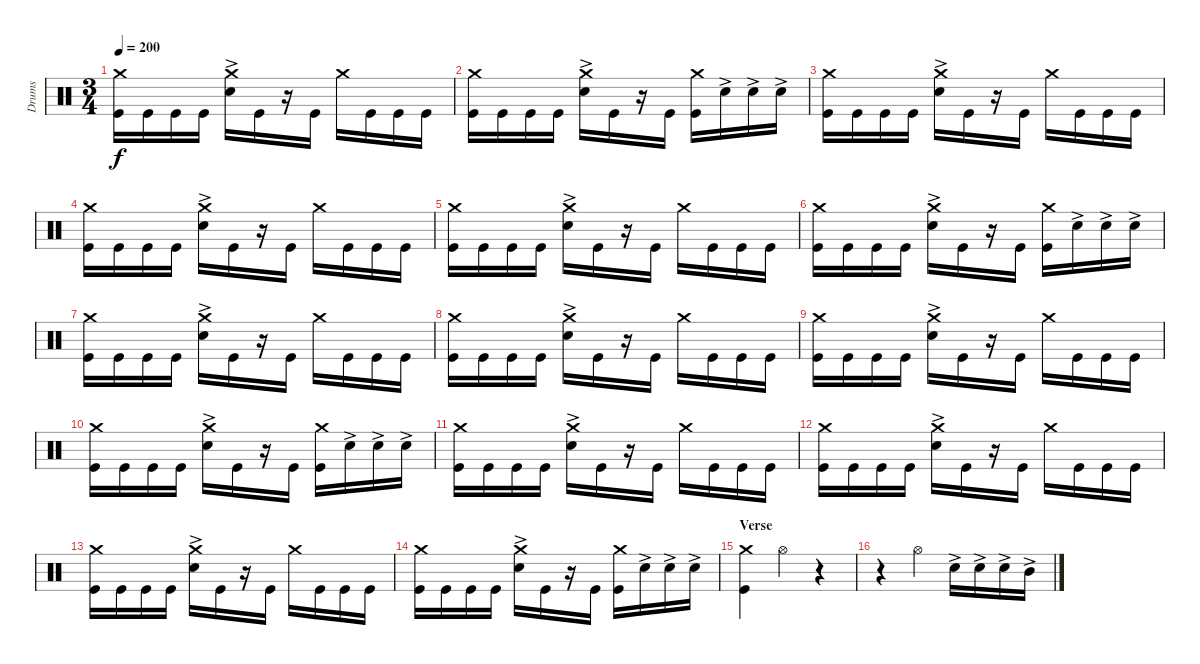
\track ("Drums" "Drums") {instrument percussion}
\staff {score}
\articulation defaults
\ts (3 4)
\tempo 200
\clef neutral
\ks c
("Crash medium (hit)" "Kick (hit)").16{dy f} "Kick (hit)".16 "Kick (hit)".16 "Kick (hit)".16 ("Crash medium (hit)" "Snare (hit) 2"{ac}).16 "Kick (hit)".16 r.16 "Kick (hit)".16 "Crash medium (hit)".16 "Kick (hit)".16 "Kick (hit)".16 "Kick (hit)".16 |
("Crash medium (hit)" "Kick (hit)").16 "Kick (hit)".16 "Kick (hit)".16 "Kick (hit)".16 ("Crash medium (hit)" "Snare (hit) 2"{ac}).16 "Kick (hit)".16 r.16 "Kick (hit)".16 ("Kick (hit)" "Crash medium (hit)").16 "Snare (hit) 2"{ac}.16 "Snare (hit) 2"{ac}.16 "Snare (hit) 2"{ac}.16 |
("Crash medium (hit)" "Kick (hit)").16 "Kick (hit)".16 "Kick (hit)".16 "Kick (hit)".16 ("Crash medium (hit)" "Snare (hit) 2"{ac}).16 "Kick (hit)".16 r.16 "Kick (hit)".16 "Crash medium (hit)".16 "Kick (hit)".16 "Kick (hit)".16 "Kick (hit)".16 |
("Crash medium (hit)" "Kick (hit)").16 "Kick (hit)".16 "Kick (hit)".16 "Kick (hit)".16 ("Crash medium (hit)" "Snare (hit) 2"{ac}).16 "Kick (hit)".16 r.16 "Kick (hit)".16 "Crash medium (hit)".16 "Kick (hit)".16 "Kick (hit)".16 "Kick (hit)".16 |
("Crash medium (hit)" "Kick (hit)").16 "Kick (hit)".16 "Kick (hit)".16 "Kick (hit)".16 ("Crash medium (hit)" "Snare (hit) 2"{ac}).16 "Kick (hit)".16 r.16 "Kick (hit)".16 "Crash medium (hit)".16 "Kick (hit)".16 "Kick (hit)".16 "Kick (hit)".16 |
("Crash medium (hit)" "Kick (hit)").16 "Kick (hit)".16 "Kick (hit)".16 "Kick (hit)".16 ("Crash medium (hit)" "Snare (hit) 2"{ac}).16 "Kick (hit)".16 r.16 "Kick (hit)".16 ("Kick (hit)" "Crash medium (hit)").16 "Snare (hit) 2"{ac}.16 "Snare (hit) 2"{ac}.16 "Snare (hit) 2"{ac}.16 |
("Crash medium (hit)" "Kick (hit)").16 "Kick (hit)".16 "Kick (hit)".16 "Kick (hit)".16 ("Crash medium (hit)" "Snare (hit) 2"{ac}).16 "Kick (hit)".16 r.16 "Kick (hit)".16 "Crash medium (hit)".16 "Kick (hit)".16 "Kick (hit)".16 "Kick (hit)".16 |
("Crash medium (hit)" "Kick (hit)").16 "Kick (hit)".16 "Kick (hit)".16 "Kick (hit)".16 ("Crash medium (hit)" "Snare (hit) 2"{ac}).16 "Kick (hit)".16 r.16 "Kick (hit)".16 "Crash medium (hit)".16 "Kick (hit)".16 "Kick (hit)".16 "Kick (hit)".16 |
("Crash medium (hit)" "Kick (hit)").16 "Kick (hit)".16 "Kick (hit)".16 "Kick (hit)".16 ("Crash medium (hit)" "Snare (hit) 2"{ac}).16 "Kick (hit)".16 r.16 "Kick (hit)".16 "Crash medium (hit)".16 "Kick (hit)".16 "Kick (hit)".16 "Kick (hit)".16 |
("Crash medium (hit)" "Kick (hit)").16 "Kick (hit)".16 "Kick (hit)".16 "Kick (hit)".16 ("Crash medium (hit)" "Snare (hit) 2"{ac}).16 "Kick (hit)".16 r.16 "Kick (hit)".16 ("Kick (hit)" "Crash medium (hit)").16 "Snare (hit) 2"{ac}.16 "Snare (hit) 2"{ac}.16 "Snare (hit) 2"{ac}.16 |
("Crash medium (hit)" "Kick (hit)").16 "Kick (hit)".16 "Kick (hit)".16 "Kick (hit)".16 ("Crash medium (hit)" "Snare (hit) 2"{ac}).16 "Kick (hit)".16 r.16 "Kick (hit)".16 "Crash medium (hit)".16 "Kick (hit)".16 "Kick (hit)".16 "Kick (hit)".16 |
("Crash medium (hit)" "Kick (hit)").16 "Kick (hit)".16 "Kick (hit)".16 "Kick (hit)".16 ("Crash medium (hit)" "Snare (hit) 2"{ac}).16 "Kick (hit)".16 r.16 "Kick (hit)".16 "Crash medium (hit)".16 "Kick (hit)".16 "Kick (hit)".16 "Kick (hit)".16 |
("Crash medium (hit)" "Kick (hit)").16 "Kick (hit)".16 "Kick (hit)".16 "Kick (hit)".16 ("Crash medium (hit)" "Snare (hit) 2"{ac}).16 "Kick (hit)".16 r.16 "Kick (hit)".16 "Crash medium (hit)".16 "Kick (hit)".16 "Kick (hit)".16 "Kick (hit)".16 |
("Crash medium (hit)" "Kick (hit)").16 "Kick (hit)".16 "Kick (hit)".16 "Kick (hit)".16 ("Crash medium (hit)" "Snare (hit) 2"{ac}).16 "Kick (hit)".16 r.16 "Kick (hit)".16 ("Kick (hit)" "Crash medium (hit)").16 "Snare (hit) 2"{ac}.16 "Snare (hit) 2"{ac}.16 "Snare (hit) 2"{ac}.16 |
\section ("" "Verse")
("Kick (hit)" "Crash medium (hit)").4 "Hi-Hat (open)".4 r.4 |
r.4 "Hi-Hat (open)".4 "Snare (hit) 2"{ac}.16 "Snare (hit) 2"{ac}.16 "Snare (hit) 2"{ac}.16 "Mid Tom (hit)"{ac}.16
